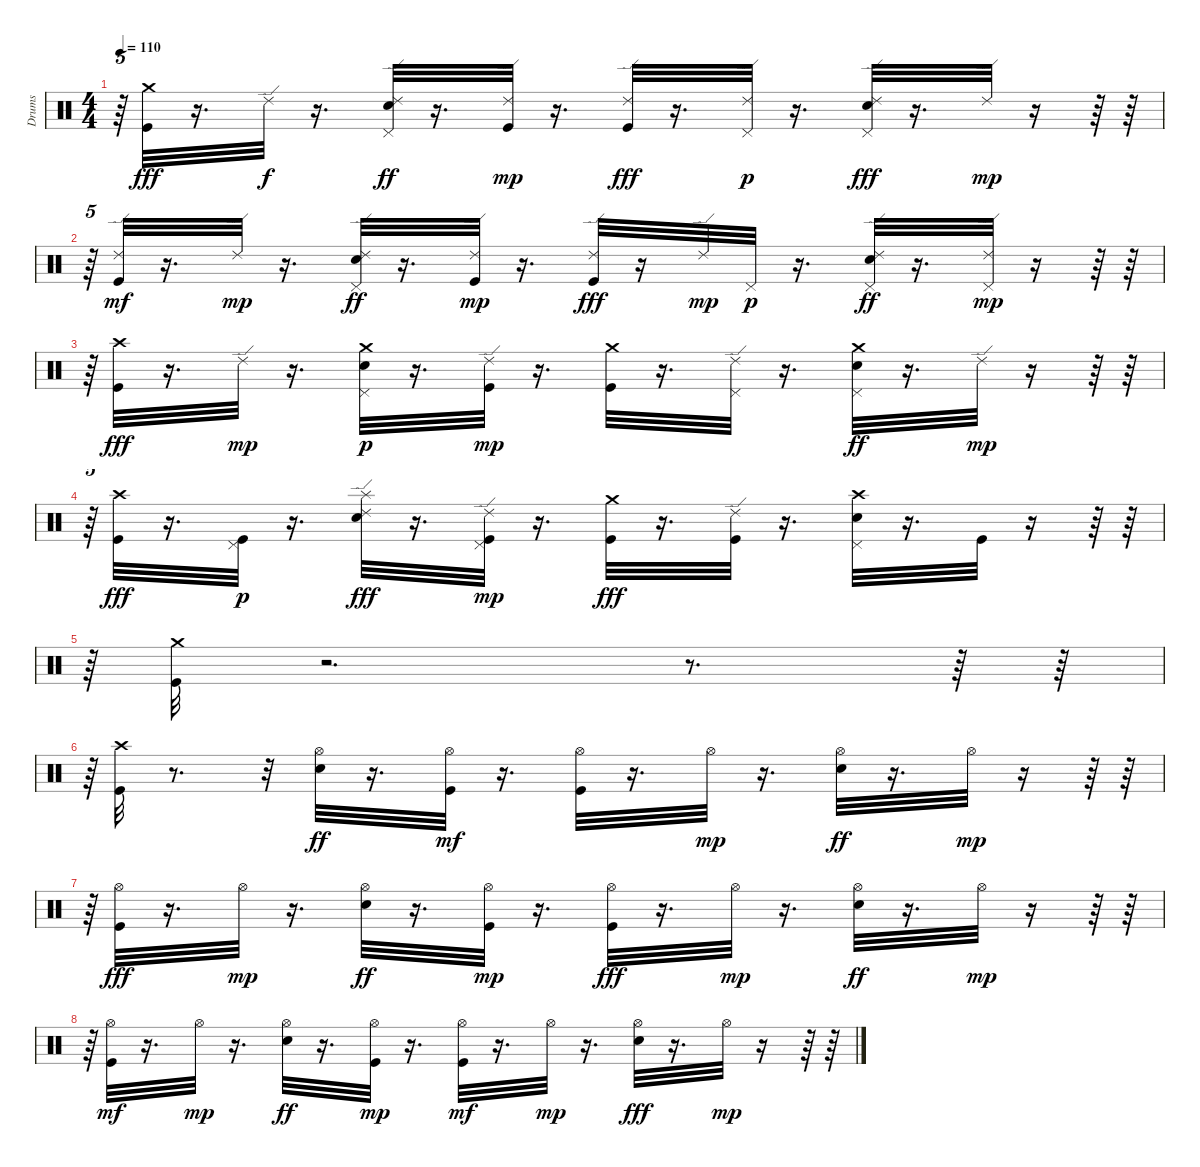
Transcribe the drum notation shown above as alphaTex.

\track ("Drums" "Drums") {instrument percussion}
\staff {score}
\articulation defaults
\ts (4 4)
\tempo 110
\clef neutral
\ks c
r.64{tu (5 4) dy f} ("Kick (hit)" "Crash medium (hit)").32{dy fff} r.16{d} "Ride (edge) 2".32{dy f} r.16{d} ("Electric Snare (hit)" "Ride (edge) 2" "Pedal Hi-Hat (hit)").32{dy ff} r.16{d} ("Ride (edge) 2" "Kick (hit)").32{dy mp} r.16{d} ("Kick (hit)" "Ride (edge) 2").32{dy fff} r.16{d} ("Ride (edge) 2" "Pedal Hi-Hat (hit)").32{dy p} r.16{d} ("Ride (edge) 2" "Pedal Hi-Hat (hit)" "Electric Snare (hit)").32{dy fff} r.16{d} "Ride (edge) 2".32{dy mp} r.16 r.64 r.64 |
r.64{tu (5 4)} ("Kick (hit)" "Ride (edge) 2").32{dy mf} r.16{d} "Ride (edge) 2".32{dy mp} r.16{d} ("Electric Snare (hit)" "Ride (edge) 2" "Pedal Hi-Hat (hit)").32{dy ff} r.16{d} ("Ride (edge) 2" "Kick (hit)").32{dy mp} r.16{d} ("Ride (edge) 2" "Kick (hit)").32{dy fff} r.16 "Ride (edge) 2".32{dy mp} "Pedal Hi-Hat (hit)".32{dy p} r.16{d} ("Ride (edge) 2" "Electric Snare (hit)" "Pedal Hi-Hat (hit)").32{dy ff} r.16{d} ("Ride (edge) 2" "Pedal Hi-Hat (hit)").32{dy mp} r.16 r.64 r.64 |
r.64{tu (5 4)} ("Kick (hit)" "Crash high (hit)").32{dy fff} r.16{d} "Ride (edge) 2".32{dy mp} r.16{d} ("Electric Snare (hit)" "Crash medium (hit)" "Pedal Hi-Hat (hit)").32{dy p} r.16{d} ("Ride (edge) 2" "Kick (hit)").32{dy mp} r.16{d} ("Kick (hit)" "Crash medium (hit)").32 r.16{d} ("Pedal Hi-Hat (hit)" "Ride (edge) 2").32 r.16{d} ("Pedal Hi-Hat (hit)" "Electric Snare (hit)" "Crash medium (hit)").32{dy ff} r.16{d} "Ride (edge) 2".32{dy mp} r.16 r.64 r.64 |
r.64{tu (5 4)} ("Kick (hit)" "Crash high (hit)").32{dy fff} r.16{d} ("Pedal Hi-Hat (hit)" "Kick (hit)").32{dy p} r.16{d} ("Ride (edge) 2" "Electric Snare (hit)" "Splash (hit)").32{dy fff} r.16{d} ("Pedal Hi-Hat (hit)" "Kick (hit)" "Ride (edge) 2").32{dy mp} r.16{d} ("Crash medium (hit)" "Kick (hit)").32{dy fff} r.16{d} ("Ride (edge) 2" "Kick (hit)").32 r.16{d} ("Pedal Hi-Hat (hit)" "Electric Snare (hit)" "Crash high (hit)").32 r.16{d} "Kick (hit)".32 r.16 r.64 r.64 |
r.64{tu (5 4)} ("Kick (hit)" "Crash medium (hit)").32 r.2{d} r.8{d} r.64 r.64 |
r.64{tu (5 4)} ("Kick (hit)" "Crash high (hit)").32 r.8{d} r.32 ("Electric Snare (hit)" "Hi-Hat (open)").32{dy ff} r.16{d} ("Kick (hit)" "Hi-Hat (open)").32{dy mf} r.16{d} ("Kick (hit)" "Hi-Hat (open)").32 r.16{d} "Hi-Hat (open)".32{dy mp} r.16{d} ("Electric Snare (hit)" "Hi-Hat (open)").32{dy ff} r.16{d} "Hi-Hat (open)".32{dy mp} r.16 r.64 r.64 |
r.64{tu (5 4)} ("Kick (hit)" "Hi-Hat (open)").32{dy fff} r.16{d} "Hi-Hat (open)".32{dy mp} r.16{d} ("Electric Snare (hit)" "Hi-Hat (open)").32{dy ff} r.16{d} ("Kick (hit)" "Hi-Hat (open)").32{dy mp} r.16{d} ("Kick (hit)" "Hi-Hat (open)").32{dy fff} r.16{d} "Hi-Hat (open)".32{dy mp} r.16{d} ("Electric Snare (hit)" "Hi-Hat (open)").32{dy ff} r.16{d} "Hi-Hat (open)".32{dy mp} r.16 r.64 r.64 |
r.64{tu (5 4)} ("Kick (hit)" "Hi-Hat (open)").32{dy mf} r.16{d} "Hi-Hat (open)".32{dy mp} r.16{d} ("Electric Snare (hit)" "Hi-Hat (open)").32{dy ff} r.16{d} ("Kick (hit)" "Hi-Hat (open)").32{dy mp} r.16{d} ("Kick (hit)" "Hi-Hat (open)").32{dy mf} r.16{d} "Hi-Hat (open)".32{dy mp} r.16{d} ("Electric Snare (hit)" "Hi-Hat (open)").32{dy fff} r.16{d} "Hi-Hat (open)".32{dy mp} r.16 r.64 r.64
